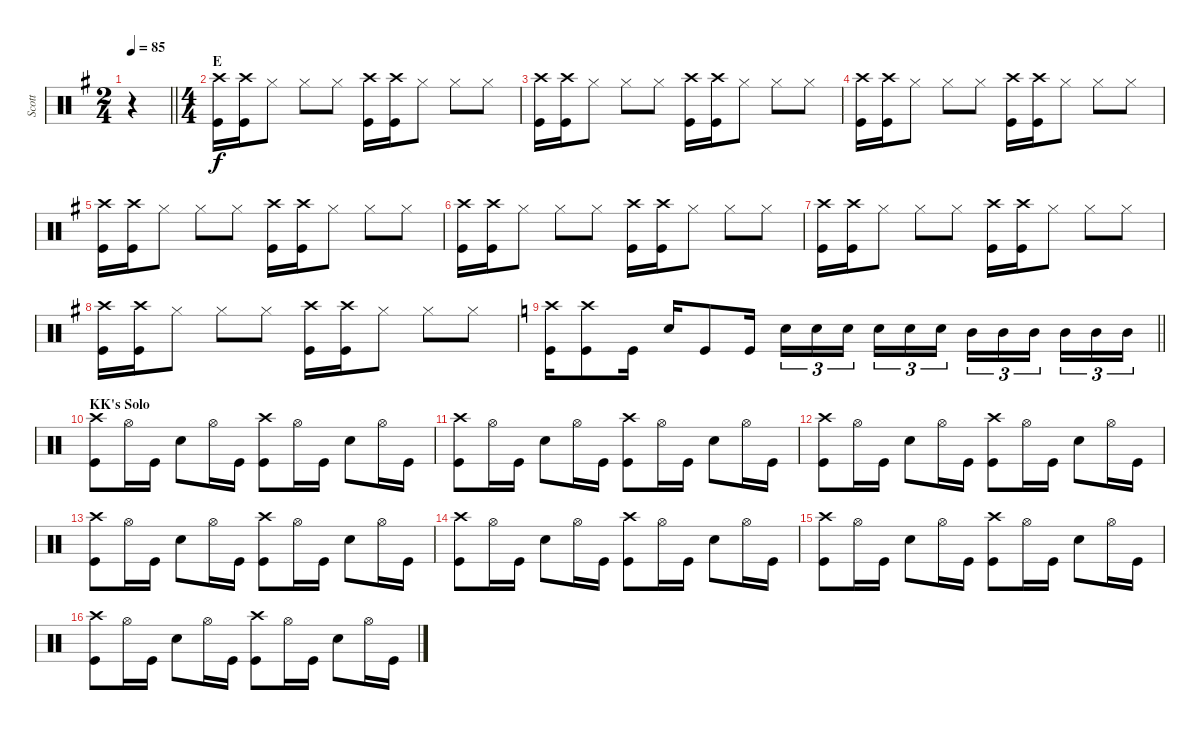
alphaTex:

\track ("Scott" "Scott") {instrument percussion}
\staff {score}
\articulation defaults
\ts (2 4)
\tempo 85
\clef neutral
\barLineRight lightlight
\ks g
r.4{dy f} |
\ts (4 4)
\section ("" "E")
("Kick (hit)" "Crash high (hit)").16 ("Kick (hit)" "Crash high (hit)").16 "Hi-Hat (closed)".8 "Hi-Hat (closed)".8 "Hi-Hat (closed)".8 ("Kick (hit)" "Crash high (hit)").16 ("Kick (hit)" "Crash high (hit)").16 "Hi-Hat (closed)".8 "Hi-Hat (closed)".8 "Hi-Hat (closed)".8 |
("Kick (hit)" "Crash high (hit)").16 ("Kick (hit)" "Crash high (hit)").16 "Hi-Hat (closed)".8 "Hi-Hat (closed)".8 "Hi-Hat (closed)".8 ("Kick (hit)" "Crash high (hit)").16 ("Kick (hit)" "Crash high (hit)").16 "Hi-Hat (closed)".8 "Hi-Hat (closed)".8 "Hi-Hat (closed)".8 |
("Kick (hit)" "Crash high (hit)").16 ("Kick (hit)" "Crash high (hit)").16 "Hi-Hat (closed)".8 "Hi-Hat (closed)".8 "Hi-Hat (closed)".8 ("Kick (hit)" "Crash high (hit)").16 ("Kick (hit)" "Crash high (hit)").16 "Hi-Hat (closed)".8 "Hi-Hat (closed)".8 "Hi-Hat (closed)".8 |
("Kick (hit)" "Crash high (hit)").16 ("Kick (hit)" "Crash high (hit)").16 "Hi-Hat (closed)".8 "Hi-Hat (closed)".8 "Hi-Hat (closed)".8 ("Kick (hit)" "Crash high (hit)").16 ("Kick (hit)" "Crash high (hit)").16 "Hi-Hat (closed)".8 "Hi-Hat (closed)".8 "Hi-Hat (closed)".8 |
("Kick (hit)" "Crash high (hit)").16 ("Kick (hit)" "Crash high (hit)").16 "Hi-Hat (closed)".8 "Hi-Hat (closed)".8 "Hi-Hat (closed)".8 ("Kick (hit)" "Crash high (hit)").16 ("Kick (hit)" "Crash high (hit)").16 "Hi-Hat (closed)".8 "Hi-Hat (closed)".8 "Hi-Hat (closed)".8 |
("Kick (hit)" "Crash high (hit)").16 ("Kick (hit)" "Crash high (hit)").16 "Hi-Hat (closed)".8 "Hi-Hat (closed)".8 "Hi-Hat (closed)".8 ("Kick (hit)" "Crash high (hit)").16 ("Kick (hit)" "Crash high (hit)").16 "Hi-Hat (closed)".8 "Hi-Hat (closed)".8 "Hi-Hat (closed)".8 |
("Kick (hit)" "Crash high (hit)").16 ("Kick (hit)" "Crash high (hit)").16 "Hi-Hat (closed)".8 "Hi-Hat (closed)".8 "Hi-Hat (closed)".8 ("Kick (hit)" "Crash high (hit)").16 ("Kick (hit)" "Crash high (hit)").16 "Hi-Hat (closed)".8 "Hi-Hat (closed)".8 "Hi-Hat (closed)".8 |
\barLineRight lightlight
\ks c
("Kick (hit)" "Crash high (hit)").16 ("Kick (hit)" "Crash high (hit)").8 "Kick (hit)".16 "Snare (hit) 2".16 "Kick (hit)".8 "Kick (hit)".16 "Snare (hit) 2".16{tu (3 2)} "Snare (hit) 2".16{tu (3 2)} "Snare (hit) 2".16{tu (3 2) beam splitsecondary} "Snare (hit) 2".16{tu (3 2)} "Snare (hit) 2".16{tu (3 2)} "Snare (hit) 2".16{tu (3 2)} "Mid Tom (hit)".16{tu (3 2)} "Mid Tom (hit)".16{tu (3 2)} "Mid Tom (hit)".16{tu (3 2) beam splitsecondary} "Mid Tom (hit)".16{tu (3 2)} "Mid Tom (hit)".16{tu (3 2)} "Mid Tom (hit)".16{tu (3 2)} |
\section ("" "KK's Solo")
("Kick (hit)" "Crash high (hit)").8 "Hi-Hat (open)".16 "Kick (hit)".16 "Snare (hit) 2".8 "Hi-Hat (open)".16 "Kick (hit)".16 ("Kick (hit)" "Crash high (hit)").8 "Hi-Hat (open)".16 "Kick (hit)".16 "Snare (hit) 2".8 "Hi-Hat (open)".16 "Kick (hit)".16 |
("Kick (hit)" "Crash high (hit)").8 "Hi-Hat (open)".16 "Kick (hit)".16 "Snare (hit) 2".8 "Hi-Hat (open)".16 "Kick (hit)".16 ("Kick (hit)" "Crash high (hit)").8 "Hi-Hat (open)".16 "Kick (hit)".16 "Snare (hit) 2".8 "Hi-Hat (open)".16 "Kick (hit)".16 |
("Kick (hit)" "Crash high (hit)").8 "Hi-Hat (open)".16 "Kick (hit)".16 "Snare (hit) 2".8 "Hi-Hat (open)".16 "Kick (hit)".16 ("Kick (hit)" "Crash high (hit)").8 "Hi-Hat (open)".16 "Kick (hit)".16 "Snare (hit) 2".8 "Hi-Hat (open)".16 "Kick (hit)".16 |
("Kick (hit)" "Crash high (hit)").8 "Hi-Hat (open)".16 "Kick (hit)".16 "Snare (hit) 2".8 "Hi-Hat (open)".16 "Kick (hit)".16 ("Kick (hit)" "Crash high (hit)").8 "Hi-Hat (open)".16 "Kick (hit)".16 "Snare (hit) 2".8 "Hi-Hat (open)".16 "Kick (hit)".16 |
("Kick (hit)" "Crash high (hit)").8 "Hi-Hat (open)".16 "Kick (hit)".16 "Snare (hit) 2".8 "Hi-Hat (open)".16 "Kick (hit)".16 ("Kick (hit)" "Crash high (hit)").8 "Hi-Hat (open)".16 "Kick (hit)".16 "Snare (hit) 2".8 "Hi-Hat (open)".16 "Kick (hit)".16 |
("Kick (hit)" "Crash high (hit)").8 "Hi-Hat (open)".16 "Kick (hit)".16 "Snare (hit) 2".8 "Hi-Hat (open)".16 "Kick (hit)".16 ("Kick (hit)" "Crash high (hit)").8 "Hi-Hat (open)".16 "Kick (hit)".16 "Snare (hit) 2".8 "Hi-Hat (open)".16 "Kick (hit)".16 |
("Kick (hit)" "Crash high (hit)").8 "Hi-Hat (open)".16 "Kick (hit)".16 "Snare (hit) 2".8 "Hi-Hat (open)".16 "Kick (hit)".16 ("Kick (hit)" "Crash high (hit)").8 "Hi-Hat (open)".16 "Kick (hit)".16 "Snare (hit) 2".8 "Hi-Hat (open)".16 "Kick (hit)".16
